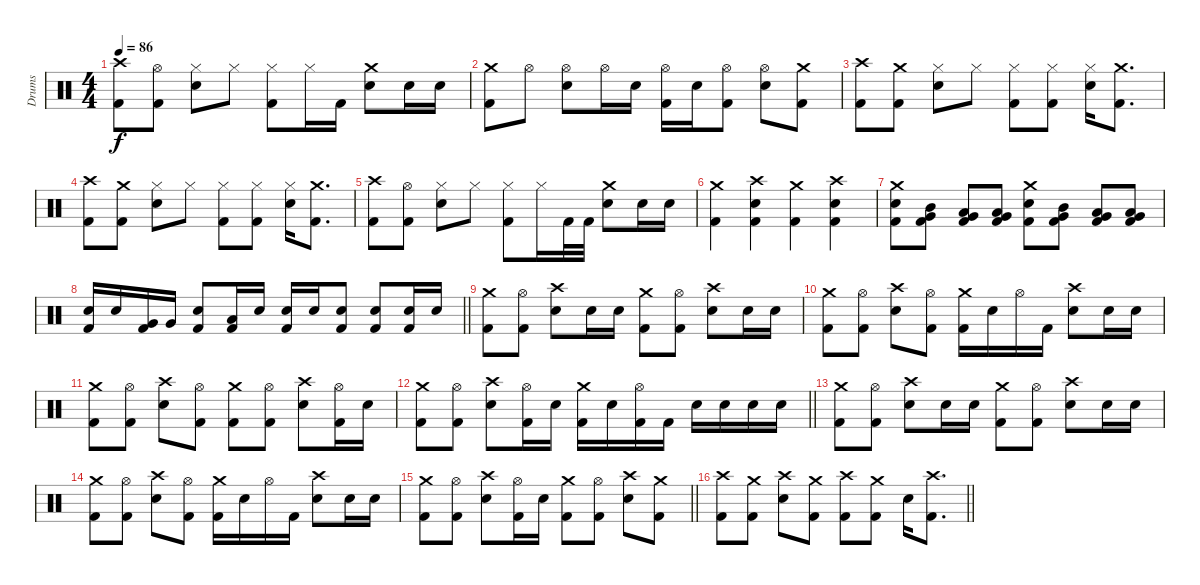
\track ("Drums" "Drums") {instrument percussion}
\staff {score}
\articulation defaults
\ts (4 4)
\tempo 86
\clef neutral
\ks c
("Crash high (hit)" "Kick (hit) 2").8{dy f} ("Hi-Hat (open)" "Kick (hit) 2").8 ("Hi-Hat (closed)" "Electric Snare (hit)").8 "Hi-Hat (closed)".8 ("Hi-Hat (closed)" "Kick (hit) 2").8 "Hi-Hat (closed)".16 "Kick (hit) 2".16 ("Crash medium (hit)" "Electric Snare (hit)").8 "Electric Snare (hit)".16 "Electric Snare (hit)".16 |
("Crash medium (hit)" "Kick (hit) 2").8 "Hi-Hat (open)".8 ("Hi-Hat (open)" "Electric Snare (hit)").8 "Hi-Hat (open)".16 "Electric Snare (hit)".16 ("Hi-Hat (open)" "Kick (hit) 2").16 "Electric Snare (hit)".16 ("Hi-Hat (open)" "Kick (hit) 2").8 ("Hi-Hat (open)" "Electric Snare (hit)").8 ("Crash medium (hit)" "Kick (hit) 2").8 |
("Crash high (hit)" "Kick (hit) 2").8 ("Crash medium (hit)" "Kick (hit) 2").8 ("Hi-Hat (closed)" "Electric Snare (hit)").8 "Hi-Hat (closed)".8 ("Hi-Hat (closed)" "Kick (hit) 2").8 ("Hi-Hat (closed)" "Kick (hit) 2").8 ("Hi-Hat (closed)" "Electric Snare (hit)").16 ("Crash medium (hit)" "Kick (hit) 2").8{d} |
("Crash high (hit)" "Kick (hit) 2").8 ("Crash medium (hit)" "Kick (hit) 2").8 ("Hi-Hat (closed)" "Electric Snare (hit)").8 "Hi-Hat (closed)".8 ("Hi-Hat (closed)" "Kick (hit) 2").8 ("Hi-Hat (closed)" "Kick (hit) 2").8 ("Hi-Hat (closed)" "Electric Snare (hit)").16 ("Crash medium (hit)" "Kick (hit) 2").8{d} |
("Crash high (hit)" "Kick (hit) 2").8 ("Hi-Hat (open)" "Kick (hit) 2").8 ("Hi-Hat (closed)" "Electric Snare (hit)").8 "Hi-Hat (closed)".8 ("Hi-Hat (closed)" "Kick (hit) 2").8 "Hi-Hat (closed)".16 "Kick (hit) 2".32 "Kick (hit) 2".32 ("Crash medium (hit)" "Electric Snare (hit)").8 "Electric Snare (hit)".16 "Electric Snare (hit)".16 |
("Crash medium (hit)" "Kick (hit) 2").4 ("Crash high (hit)" "Electric Snare (hit)" "Kick (hit) 2").4 ("Crash medium (hit)" "Kick (hit) 2").4 ("Crash high (hit)" "Electric Snare (hit)" "Kick (hit) 2").4 |
("Crash medium (hit)" "Electric Snare (hit)" "Kick (hit) 2").8 ("Mid Tom (hit)" "Very Low Tom (hit)" "Kick (hit) 2").8 ("Low Tom (hit)" "Very Low Tom (hit)" "Kick (hit) 2").8 ("Low Floor Tom (hit)" "Very Low Tom (hit)" "Kick (hit) 2").8 ("Crash medium (hit)" "Electric Snare (hit)" "Kick (hit) 2").8 ("Mid Tom (hit)" "Very Low Tom (hit)" "Kick (hit) 2").8 ("Low Tom (hit)" "Very Low Tom (hit)" "Kick (hit) 2").8 ("Low Floor Tom (hit)" "Very Low Tom (hit)" "Kick (hit) 2").8 |
\barLineRight lightlight
("Electric Snare (hit)" "Kick (hit) 2").16 "Electric Snare (hit)".16 ("Very Low Tom (hit)" "Kick (hit) 2").16 "Very Low Tom (hit)".16 ("Electric Snare (hit)" "Kick (hit) 2").8 ("Low Floor Tom (hit)" "Kick (hit) 2").16 "Electric Snare (hit)".16 ("Electric Snare (hit)" "Kick (hit) 2").16 "Electric Snare (hit)".16 ("Electric Snare (hit)" "Kick (hit) 2").8 ("Electric Snare (hit)" "Kick (hit) 2").8 ("Electric Snare (hit)" "Kick (hit) 2").16 "Electric Snare (hit)".16 |
("Crash medium (hit)" "Kick (hit) 2").8 ("Hi-Hat (open)" "Kick (hit) 2").8 ("Crash high (hit)" "Electric Snare (hit)").8 "Electric Snare (hit)".16 "Electric Snare (hit)".16 ("Crash medium (hit)" "Kick (hit) 2").8 ("Hi-Hat (open)" "Kick (hit) 2").8 ("Crash high (hit)" "Electric Snare (hit)").8 "Electric Snare (hit)".16 "Electric Snare (hit)".16 |
("Crash medium (hit)" "Kick (hit) 2").8 ("Hi-Hat (open)" "Kick (hit) 2").8 ("Crash high (hit)" "Electric Snare (hit)").8 ("Hi-Hat (open)" "Kick (hit) 2").8 ("Crash medium (hit)" "Kick (hit) 2").16 "Electric Snare (hit)".16 "Hi-Hat (open)".16 "Kick (hit) 2".16 ("Crash high (hit)" "Electric Snare (hit)").8 "Electric Snare (hit)".16 "Electric Snare (hit)".16 |
("Crash medium (hit)" "Kick (hit) 2").8 ("Hi-Hat (open)" "Kick (hit) 2").8 ("Crash high (hit)" "Electric Snare (hit)").8 ("Hi-Hat (open)" "Kick (hit) 2").8 ("Crash medium (hit)" "Kick (hit) 2").8 ("Hi-Hat (open)" "Kick (hit) 2").8 ("Crash high (hit)" "Electric Snare (hit)").8 ("Hi-Hat (open)" "Kick (hit) 2").16 "Electric Snare (hit)".16 |
\barLineRight lightlight
("Crash medium (hit)" "Kick (hit) 2").8 ("Hi-Hat (open)" "Kick (hit) 2").8 ("Crash high (hit)" "Electric Snare (hit)").8 ("Hi-Hat (open)" "Kick (hit) 2").16 "Electric Snare (hit)".16 ("Crash medium (hit)" "Kick (hit) 2").16 "Electric Snare (hit)".16 ("Hi-Hat (open)" "Kick (hit) 2").16 "Kick (hit) 2".16 "Electric Snare (hit)".16 "Electric Snare (hit)".16 "Electric Snare (hit)".16 "Electric Snare (hit)".16 |
("Crash medium (hit)" "Kick (hit) 2").8 ("Hi-Hat (open)" "Kick (hit) 2").8 ("Crash high (hit)" "Electric Snare (hit)").8 "Electric Snare (hit)".16 "Electric Snare (hit)".16 ("Crash medium (hit)" "Kick (hit) 2").8 ("Hi-Hat (open)" "Kick (hit) 2").8 ("Crash high (hit)" "Electric Snare (hit)").8 "Electric Snare (hit)".16 "Electric Snare (hit)".16 |
("Crash medium (hit)" "Kick (hit) 2").8 ("Hi-Hat (open)" "Kick (hit) 2").8 ("Crash high (hit)" "Electric Snare (hit)").8 ("Hi-Hat (open)" "Kick (hit) 2").8 ("Crash medium (hit)" "Kick (hit) 2").16 "Electric Snare (hit)".16 "Hi-Hat (open)".16 "Kick (hit) 2".16 ("Crash high (hit)" "Electric Snare (hit)").8 "Electric Snare (hit)".16 "Electric Snare (hit)".16 |
\barLineRight lightlight
("Crash medium (hit)" "Kick (hit) 2").8 ("Hi-Hat (open)" "Kick (hit) 2").8 ("Crash high (hit)" "Electric Snare (hit)").8 ("Hi-Hat (open)" "Kick (hit) 2").16 "Electric Snare (hit)".16 ("Crash medium (hit)" "Kick (hit) 2").8 ("Hi-Hat (open)" "Kick (hit) 2").8 ("Crash high (hit)" "Electric Snare (hit)").8 ("Crash medium (hit)" "Kick (hit) 2").8 |
\barLineRight lightlight
("Crash high (hit)" "Kick (hit) 2").8 ("Crash medium (hit)" "Kick (hit) 2").8 ("Crash high (hit)" "Electric Snare (hit)").8 ("Crash medium (hit)" "Kick (hit) 2").8 ("Crash high (hit)" "Kick (hit) 2").8 ("Crash medium (hit)" "Kick (hit) 2").8 "Electric Snare (hit)".16 ("Crash high (hit)" "Kick (hit) 2").8{d}
